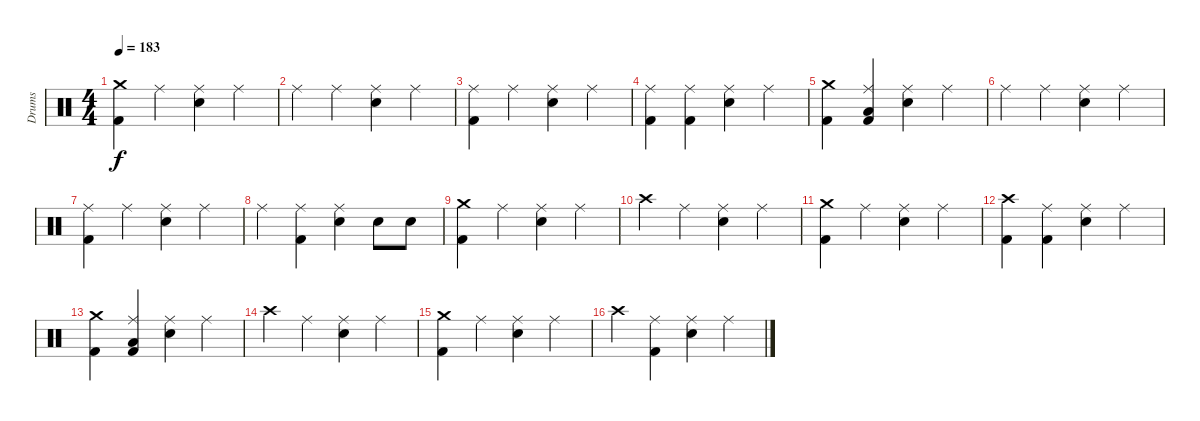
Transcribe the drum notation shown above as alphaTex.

\track ("Drums" "Drums") {instrument percussion}
\staff {score}
\articulation defaults
\ts (4 4)
\tempo 183
\clef neutral
\ks c
("Crash medium (hit)" "Kick (hit) 2").4{dy f} "Ride (middle)".4 ("Ride (middle)" "Electric Snare (hit)").4 "Ride (middle)".4 |
"Ride (middle)".4 "Ride (middle)".4 ("Ride (middle)" "Electric Snare (hit)").4 "Ride (middle)".4 |
("Ride (middle)" "Kick (hit) 2").4 "Ride (middle)".4 ("Ride (middle)" "Electric Snare (hit)").4 "Ride (middle)".4 |
("Ride (middle)" "Kick (hit) 2").4 ("Ride (middle)" "Kick (hit) 2").4 ("Ride (middle)" "Electric Snare (hit)").4 "Ride (middle)".4 |
("Crash medium (hit)" "Kick (hit) 2").4 ("Ride (middle)" "Low Floor Tom (hit)" "Kick (hit) 2").4 ("Ride (middle)" "Electric Snare (hit)").4 "Ride (middle)".4 |
"Ride (middle)".4 "Ride (middle)".4 ("Ride (middle)" "Electric Snare (hit)").4 "Ride (middle)".4 |
("Ride (middle)" "Kick (hit) 2").4 "Ride (middle)".4 ("Ride (middle)" "Electric Snare (hit)").4 "Ride (middle)".4 |
"Ride (middle)".4 ("Ride (middle)" "Kick (hit) 2").4 ("Ride (middle)" "Electric Snare (hit)").4 "Electric Snare (hit)".8 "Electric Snare (hit)".8 |
("Crash medium (hit)" "Kick (hit) 2").4 "Ride (middle)".4 ("Ride (middle)" "Electric Snare (hit)").4 "Ride (middle)".4 |
"Crash high (hit)".4 "Ride (middle)".4 ("Ride (middle)" "Electric Snare (hit)").4 "Ride (middle)".4 |
("Crash medium (hit)" "Kick (hit) 2").4 "Ride (middle)".4 ("Ride (middle)" "Electric Snare (hit)").4 "Ride (middle)".4 |
("Crash high (hit)" "Kick (hit) 2").4 ("Ride (middle)" "Kick (hit) 2").4 ("Ride (middle)" "Electric Snare (hit)").4 "Ride (middle)".4 |
("Crash medium (hit)" "Kick (hit) 2").4 ("Ride (middle)" "Low Floor Tom (hit)" "Kick (hit) 2").4 ("Ride (middle)" "Electric Snare (hit)").4 "Ride (middle)".4 |
"Crash high (hit)".4 "Ride (middle)".4 ("Ride (middle)" "Electric Snare (hit)").4 "Ride (middle)".4 |
("Crash medium (hit)" "Kick (hit) 2").4 "Ride (middle)".4 ("Ride (middle)" "Electric Snare (hit)").4 "Ride (middle)".4 |
"Crash high (hit)".4 ("Ride (middle)" "Kick (hit) 2").4 ("Ride (middle)" "Electric Snare (hit)").4 "Ride (middle)".4
